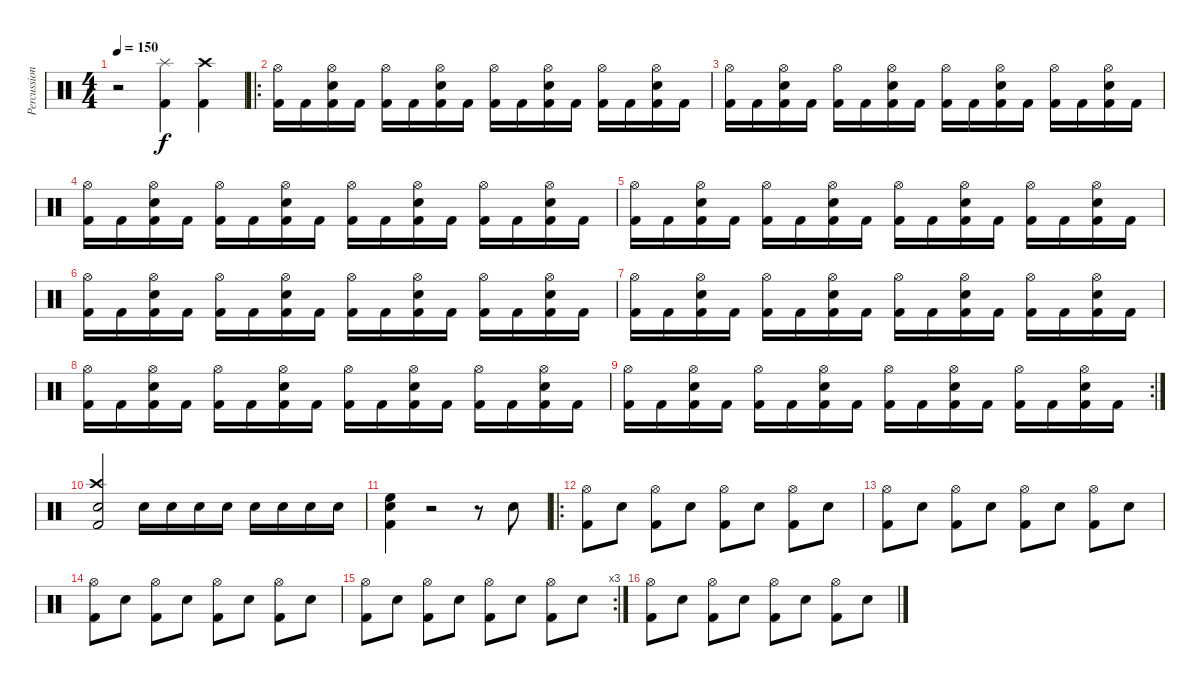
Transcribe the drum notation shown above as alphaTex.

\track ("Percussion" "Percussion") {instrument percussion}
\staff {score}
\articulation defaults
\ts (4 4)
\tempo 150
\clef neutral
\ks c
r.2{dy f} ("Splash (hit)" "Kick (hit) 2").4 ("Crash high (hit)" "Kick (hit) 2").4 |
\ro
("Hi-Hat (open)" "Kick (hit) 2").16 "Kick (hit) 2".16 ("Hi-Hat (open)" "Snare (hit) 2" "Kick (hit) 2").16 "Kick (hit) 2".16 ("Hi-Hat (open)" "Kick (hit) 2").16 "Kick (hit) 2".16 ("Hi-Hat (open)" "Snare (hit) 2" "Kick (hit) 2").16 "Kick (hit) 2".16 ("Hi-Hat (open)" "Kick (hit) 2").16 "Kick (hit) 2".16 ("Hi-Hat (open)" "Snare (hit) 2" "Kick (hit) 2").16 "Kick (hit) 2".16 ("Hi-Hat (open)" "Kick (hit) 2").16 "Kick (hit) 2".16 ("Hi-Hat (open)" "Snare (hit) 2" "Kick (hit) 2").16 "Kick (hit) 2".16 |
("Hi-Hat (open)" "Kick (hit) 2").16 "Kick (hit) 2".16 ("Hi-Hat (open)" "Snare (hit) 2" "Kick (hit) 2").16 "Kick (hit) 2".16 ("Hi-Hat (open)" "Kick (hit) 2").16 "Kick (hit) 2".16 ("Hi-Hat (open)" "Snare (hit) 2" "Kick (hit) 2").16 "Kick (hit) 2".16 ("Hi-Hat (open)" "Kick (hit) 2").16 "Kick (hit) 2".16 ("Hi-Hat (open)" "Snare (hit) 2" "Kick (hit) 2").16 "Kick (hit) 2".16 ("Hi-Hat (open)" "Kick (hit) 2").16 "Kick (hit) 2".16 ("Hi-Hat (open)" "Snare (hit) 2" "Kick (hit) 2").16 "Kick (hit) 2".16 |
("Hi-Hat (open)" "Kick (hit) 2").16 "Kick (hit) 2".16 ("Hi-Hat (open)" "Snare (hit) 2" "Kick (hit) 2").16 "Kick (hit) 2".16 ("Hi-Hat (open)" "Kick (hit) 2").16 "Kick (hit) 2".16 ("Hi-Hat (open)" "Snare (hit) 2" "Kick (hit) 2").16 "Kick (hit) 2".16 ("Hi-Hat (open)" "Kick (hit) 2").16 "Kick (hit) 2".16 ("Hi-Hat (open)" "Snare (hit) 2" "Kick (hit) 2").16 "Kick (hit) 2".16 ("Hi-Hat (open)" "Kick (hit) 2").16 "Kick (hit) 2".16 ("Hi-Hat (open)" "Snare (hit) 2" "Kick (hit) 2").16 "Kick (hit) 2".16 |
("Hi-Hat (open)" "Kick (hit) 2").16 "Kick (hit) 2".16 ("Hi-Hat (open)" "Snare (hit) 2" "Kick (hit) 2").16 "Kick (hit) 2".16 ("Hi-Hat (open)" "Kick (hit) 2").16 "Kick (hit) 2".16 ("Hi-Hat (open)" "Snare (hit) 2" "Kick (hit) 2").16 "Kick (hit) 2".16 ("Hi-Hat (open)" "Kick (hit) 2").16 "Kick (hit) 2".16 ("Hi-Hat (open)" "Snare (hit) 2" "Kick (hit) 2").16 "Kick (hit) 2".16 ("Hi-Hat (open)" "Kick (hit) 2").16 "Kick (hit) 2".16 ("Hi-Hat (open)" "Snare (hit) 2" "Kick (hit) 2").16 "Kick (hit) 2".16 |
("Hi-Hat (open)" "Kick (hit) 2").16 "Kick (hit) 2".16 ("Hi-Hat (open)" "Snare (hit) 2" "Kick (hit) 2").16 "Kick (hit) 2".16 ("Hi-Hat (open)" "Kick (hit) 2").16 "Kick (hit) 2".16 ("Hi-Hat (open)" "Snare (hit) 2" "Kick (hit) 2").16 "Kick (hit) 2".16 ("Hi-Hat (open)" "Kick (hit) 2").16 "Kick (hit) 2".16 ("Hi-Hat (open)" "Snare (hit) 2" "Kick (hit) 2").16 "Kick (hit) 2".16 ("Hi-Hat (open)" "Kick (hit) 2").16 "Kick (hit) 2".16 ("Hi-Hat (open)" "Snare (hit) 2" "Kick (hit) 2").16 "Kick (hit) 2".16 |
("Hi-Hat (open)" "Kick (hit) 2").16 "Kick (hit) 2".16 ("Hi-Hat (open)" "Snare (hit) 2" "Kick (hit) 2").16 "Kick (hit) 2".16 ("Hi-Hat (open)" "Kick (hit) 2").16 "Kick (hit) 2".16 ("Hi-Hat (open)" "Snare (hit) 2" "Kick (hit) 2").16 "Kick (hit) 2".16 ("Hi-Hat (open)" "Kick (hit) 2").16 "Kick (hit) 2".16 ("Hi-Hat (open)" "Snare (hit) 2" "Kick (hit) 2").16 "Kick (hit) 2".16 ("Hi-Hat (open)" "Kick (hit) 2").16 "Kick (hit) 2".16 ("Hi-Hat (open)" "Snare (hit) 2" "Kick (hit) 2").16 "Kick (hit) 2".16 |
("Hi-Hat (open)" "Kick (hit) 2").16 "Kick (hit) 2".16 ("Hi-Hat (open)" "Snare (hit) 2" "Kick (hit) 2").16 "Kick (hit) 2".16 ("Hi-Hat (open)" "Kick (hit) 2").16 "Kick (hit) 2".16 ("Hi-Hat (open)" "Snare (hit) 2" "Kick (hit) 2").16 "Kick (hit) 2".16 ("Hi-Hat (open)" "Kick (hit) 2").16 "Kick (hit) 2".16 ("Hi-Hat (open)" "Snare (hit) 2" "Kick (hit) 2").16 "Kick (hit) 2".16 ("Hi-Hat (open)" "Kick (hit) 2").16 "Kick (hit) 2".16 ("Hi-Hat (open)" "Snare (hit) 2" "Kick (hit) 2").16 "Kick (hit) 2".16 |
\rc 2
("Hi-Hat (open)" "Kick (hit) 2").16 "Kick (hit) 2".16 ("Hi-Hat (open)" "Snare (hit) 2" "Kick (hit) 2").16 "Kick (hit) 2".16 ("Hi-Hat (open)" "Kick (hit) 2").16 "Kick (hit) 2".16 ("Hi-Hat (open)" "Snare (hit) 2" "Kick (hit) 2").16 "Kick (hit) 2".16 ("Hi-Hat (open)" "Kick (hit) 2").16 "Kick (hit) 2".16 ("Hi-Hat (open)" "Snare (hit) 2" "Kick (hit) 2").16 "Kick (hit) 2".16 ("Hi-Hat (open)" "Kick (hit) 2").16 "Kick (hit) 2".16 ("Hi-Hat (open)" "Snare (hit) 2" "Kick (hit) 2").16 "Kick (hit) 2".16 |
("Crash high (hit)" "Snare (hit) 2" "Kick (hit) 2").2 "Snare (hit) 2".16 "Snare (hit) 2".16 "Snare (hit) 2".16 "Snare (hit) 2".16 "Snare (hit) 2".16 "Snare (hit) 2".16 "Snare (hit) 2".16 "Snare (hit) 2".16 |
("High Floor Tom (hit)" "Snare (hit) 2" "Kick (hit) 2").4 r.2 r.8 "Snare (hit) 2".8 |
\ro
("Hi-Hat (open)" "Kick (hit) 2").8 "Snare (hit) 2".8 ("Hi-Hat (open)" "Kick (hit) 2").8 "Snare (hit) 2".8 ("Hi-Hat (open)" "Kick (hit) 2").8 "Snare (hit) 2".8 ("Hi-Hat (open)" "Kick (hit) 2").8 "Snare (hit) 2".8 |
("Hi-Hat (open)" "Kick (hit) 2").8 "Snare (hit) 2".8 ("Hi-Hat (open)" "Kick (hit) 2").8 "Snare (hit) 2".8 ("Hi-Hat (open)" "Kick (hit) 2").8 "Snare (hit) 2".8 ("Hi-Hat (open)" "Kick (hit) 2").8 "Snare (hit) 2".8 |
("Hi-Hat (open)" "Kick (hit) 2").8 "Snare (hit) 2".8 ("Hi-Hat (open)" "Kick (hit) 2").8 "Snare (hit) 2".8 ("Hi-Hat (open)" "Kick (hit) 2").8 "Snare (hit) 2".8 ("Hi-Hat (open)" "Kick (hit) 2").8 "Snare (hit) 2".8 |
\rc 3
("Hi-Hat (open)" "Kick (hit) 2").8 "Snare (hit) 2".8 ("Hi-Hat (open)" "Kick (hit) 2").8 "Snare (hit) 2".8 ("Hi-Hat (open)" "Kick (hit) 2").8 "Snare (hit) 2".8 ("Hi-Hat (open)" "Kick (hit) 2").8 "Snare (hit) 2".8 |
("Hi-Hat (open)" "Kick (hit) 2").8 "Snare (hit) 2".8 ("Hi-Hat (open)" "Kick (hit) 2").8 "Snare (hit) 2".8 ("Hi-Hat (open)" "Kick (hit) 2").8 "Snare (hit) 2".8 ("Hi-Hat (open)" "Kick (hit) 2").8 "Snare (hit) 2".8
